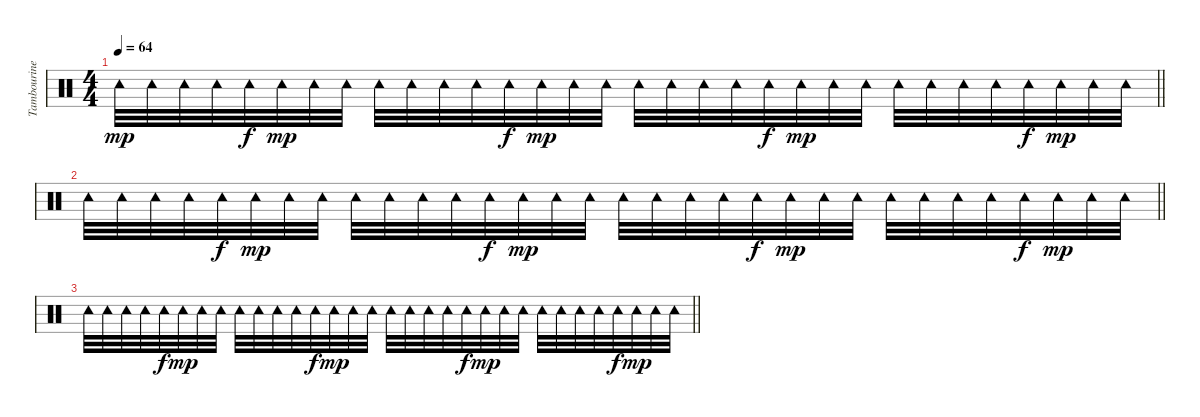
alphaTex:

\track ("Tambourine" "Tambourine") {instrument percussion}
\staff {score}
\articulation defaults
\ts (4 4)
\tempo 64
\clef neutral
\barLineRight lightlight
\ks c "Tambourine (hit)".32{dy mp} "Tambourine (hit)".32 "Tambourine (hit)".32 "Tambourine (hit)".32 "Tambourine (hit)".32{dy f} "Tambourine (hit)".32{dy mp} "Tambourine (hit)".32 "Tambourine (hit)".32 "Tambourine (hit)".32 "Tambourine (hit)".32 "Tambourine (hit)".32 "Tambourine (hit)".32 "Tambourine (hit)".32{dy f} "Tambourine (hit)".32{dy mp} "Tambourine (hit)".32 "Tambourine (hit)".32 "Tambourine (hit)".32 "Tambourine (hit)".32 "Tambourine (hit)".32 "Tambourine (hit)".32 "Tambourine (hit)".32{dy f} "Tambourine (hit)".32{dy mp} "Tambourine (hit)".32 "Tambourine (hit)".32 "Tambourine (hit)".32 "Tambourine (hit)".32 "Tambourine (hit)".32 "Tambourine (hit)".32 "Tambourine (hit)".32{dy f} "Tambourine (hit)".32{dy mp} "Tambourine (hit)".32 "Tambourine (hit)".32
|
\barLineRight lightlight "Tambourine (hit)".32 "Tambourine (hit)".32 "Tambourine (hit)".32 "Tambourine (hit)".32 "Tambourine (hit)".32{dy f} "Tambourine (hit)".32{dy mp} "Tambourine (hit)".32 "Tambourine (hit)".32 "Tambourine (hit)".32 "Tambourine (hit)".32 "Tambourine (hit)".32 "Tambourine (hit)".32 "Tambourine (hit)".32{dy f} "Tambourine (hit)".32{dy mp} "Tambourine (hit)".32 "Tambourine (hit)".32 "Tambourine (hit)".32 "Tambourine (hit)".32 "Tambourine (hit)".32 "Tambourine (hit)".32 "Tambourine (hit)".32{dy f} "Tambourine (hit)".32{dy mp} "Tambourine (hit)".32 "Tambourine (hit)".32 "Tambourine (hit)".32 "Tambourine (hit)".32 "Tambourine (hit)".32 "Tambourine (hit)".32 "Tambourine (hit)".32{dy f} "Tambourine (hit)".32{dy mp} "Tambourine (hit)".32 "Tambourine (hit)".32
|
\barLineRight lightlight "Tambourine (hit)".32 "Tambourine (hit)".32 "Tambourine (hit)".32 "Tambourine (hit)".32 "Tambourine (hit)".32{dy f} "Tambourine (hit)".32{dy mp} "Tambourine (hit)".32 "Tambourine (hit)".32 "Tambourine (hit)".32 "Tambourine (hit)".32 "Tambourine (hit)".32 "Tambourine (hit)".32 "Tambourine (hit)".32{dy f} "Tambourine (hit)".32{dy mp} "Tambourine (hit)".32 "Tambourine (hit)".32 "Tambourine (hit)".32 "Tambourine (hit)".32 "Tambourine (hit)".32 "Tambourine (hit)".32 "Tambourine (hit)".32{dy f} "Tambourine (hit)".32{dy mp} "Tambourine (hit)".32 "Tambourine (hit)".32 "Tambourine (hit)".32 "Tambourine (hit)".32 "Tambourine (hit)".32 "Tambourine (hit)".32 "Tambourine (hit)".32{dy f} "Tambourine (hit)".32{dy mp} "Tambourine (hit)".32 "Tambourine (hit)".32
